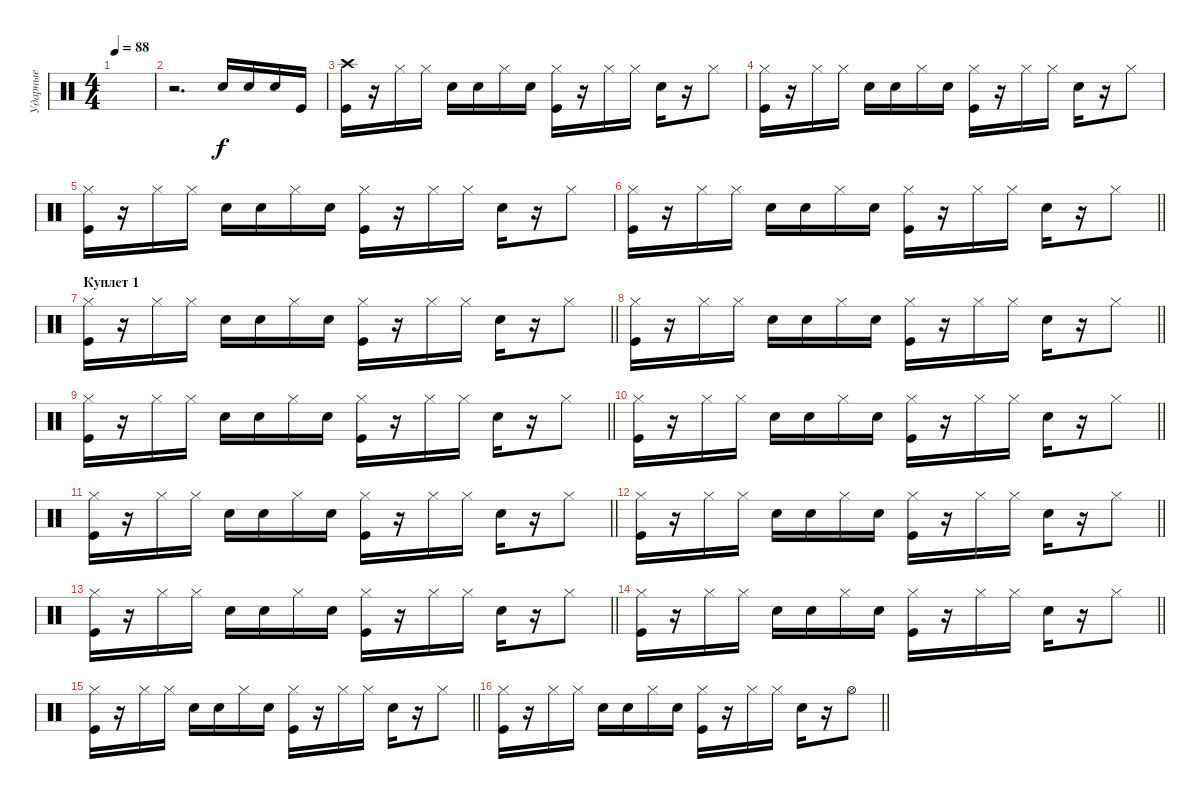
\track ("Ударные" "Ударные") {solo instrument percussion}
\staff {score}
\articulation defaults
\ts (4 4)
\tempo 88
\clef neutral
\ks aminor
|
r.2{d} "Electric Snare (hit)".16 "Electric Snare (hit)".16 "Electric Snare (hit)".16 "Kick (hit)".16 |
("Crash high (hit)" "Kick (hit)").16 r.16 "Hi-Hat (closed)".16 "Hi-Hat (closed)".16 "Snare (hit) 2".16 "Snare (hit) 2".16 "Hi-Hat (closed)".16 "Snare (hit) 2".16 ("Hi-Hat (closed)" "Kick (hit)").16 r.16 "Hi-Hat (closed)".16 "Hi-Hat (closed)".16 "Snare (hit) 2".16 r.16 "Hi-Hat (closed)".8 |
("Hi-Hat (closed)" "Kick (hit)").16 r.16 "Hi-Hat (closed)".16 "Hi-Hat (closed)".16 "Snare (hit) 2".16 "Snare (hit) 2".16 "Hi-Hat (closed)".16 "Snare (hit) 2".16 ("Hi-Hat (closed)" "Kick (hit)").16 r.16 "Hi-Hat (closed)".16 "Hi-Hat (closed)".16 "Snare (hit) 2".16 r.16 "Hi-Hat (closed)".8 |
("Hi-Hat (closed)" "Kick (hit)").16 r.16 "Hi-Hat (closed)".16 "Hi-Hat (closed)".16 "Snare (hit) 2".16 "Snare (hit) 2".16 "Hi-Hat (closed)".16 "Snare (hit) 2".16 ("Hi-Hat (closed)" "Kick (hit)").16 r.16 "Hi-Hat (closed)".16 "Hi-Hat (closed)".16 "Snare (hit) 2".16 r.16 "Hi-Hat (closed)".8 |
\barLineRight lightlight
("Hi-Hat (closed)" "Kick (hit)").16 r.16 "Hi-Hat (closed)".16 "Hi-Hat (closed)".16 "Snare (hit) 2".16 "Snare (hit) 2".16 "Hi-Hat (closed)".16 "Snare (hit) 2".16 ("Hi-Hat (closed)" "Kick (hit)").16 r.16 "Hi-Hat (closed)".16 "Hi-Hat (closed)".16 "Snare (hit) 2".16 r.16 "Hi-Hat (closed)".8 |
\section ("" "Куплет 1")
\barLineRight lightlight
("Hi-Hat (closed)" "Kick (hit)").16 r.16 "Hi-Hat (closed)".16 "Hi-Hat (closed)".16 "Snare (hit) 2".16 "Snare (hit) 2".16 "Hi-Hat (closed)".16 "Snare (hit) 2".16 ("Hi-Hat (closed)" "Kick (hit)").16 r.16 "Hi-Hat (closed)".16 "Hi-Hat (closed)".16 "Snare (hit) 2".16 r.16 "Hi-Hat (closed)".8 |
\barLineRight lightlight
("Hi-Hat (closed)" "Kick (hit)").16 r.16 "Hi-Hat (closed)".16 "Hi-Hat (closed)".16 "Snare (hit) 2".16 "Snare (hit) 2".16 "Hi-Hat (closed)".16 "Snare (hit) 2".16 ("Hi-Hat (closed)" "Kick (hit)").16 r.16 "Hi-Hat (closed)".16 "Hi-Hat (closed)".16 "Snare (hit) 2".16 r.16 "Hi-Hat (closed)".8 |
\barLineRight lightlight
("Hi-Hat (closed)" "Kick (hit)").16 r.16 "Hi-Hat (closed)".16 "Hi-Hat (closed)".16 "Snare (hit) 2".16 "Snare (hit) 2".16 "Hi-Hat (closed)".16 "Snare (hit) 2".16 ("Hi-Hat (closed)" "Kick (hit)").16 r.16 "Hi-Hat (closed)".16 "Hi-Hat (closed)".16 "Snare (hit) 2".16 r.16 "Hi-Hat (closed)".8 |
\barLineRight lightlight
("Hi-Hat (closed)" "Kick (hit)").16 r.16 "Hi-Hat (closed)".16 "Hi-Hat (closed)".16 "Snare (hit) 2".16 "Snare (hit) 2".16 "Hi-Hat (closed)".16 "Snare (hit) 2".16 ("Hi-Hat (closed)" "Kick (hit)").16 r.16 "Hi-Hat (closed)".16 "Hi-Hat (closed)".16 "Snare (hit) 2".16 r.16 "Hi-Hat (closed)".8 |
\barLineRight lightlight
("Hi-Hat (closed)" "Kick (hit)").16 r.16 "Hi-Hat (closed)".16 "Hi-Hat (closed)".16 "Snare (hit) 2".16 "Snare (hit) 2".16 "Hi-Hat (closed)".16 "Snare (hit) 2".16 ("Hi-Hat (closed)" "Kick (hit)").16 r.16 "Hi-Hat (closed)".16 "Hi-Hat (closed)".16 "Snare (hit) 2".16 r.16 "Hi-Hat (closed)".8 |
\barLineRight lightlight
("Hi-Hat (closed)" "Kick (hit)").16 r.16 "Hi-Hat (closed)".16 "Hi-Hat (closed)".16 "Snare (hit) 2".16 "Snare (hit) 2".16 "Hi-Hat (closed)".16 "Snare (hit) 2".16 ("Hi-Hat (closed)" "Kick (hit)").16 r.16 "Hi-Hat (closed)".16 "Hi-Hat (closed)".16 "Snare (hit) 2".16 r.16 "Hi-Hat (closed)".8 |
\barLineRight lightlight
("Hi-Hat (closed)" "Kick (hit)").16 r.16 "Hi-Hat (closed)".16 "Hi-Hat (closed)".16 "Snare (hit) 2".16 "Snare (hit) 2".16 "Hi-Hat (closed)".16 "Snare (hit) 2".16 ("Hi-Hat (closed)" "Kick (hit)").16 r.16 "Hi-Hat (closed)".16 "Hi-Hat (closed)".16 "Snare (hit) 2".16 r.16 "Hi-Hat (closed)".8 |
\barLineRight lightlight
("Hi-Hat (closed)" "Kick (hit)").16 r.16 "Hi-Hat (closed)".16 "Hi-Hat (closed)".16 "Snare (hit) 2".16 "Snare (hit) 2".16 "Hi-Hat (closed)".16 "Snare (hit) 2".16 ("Hi-Hat (closed)" "Kick (hit)").16 r.16 "Hi-Hat (closed)".16 "Hi-Hat (closed)".16 "Snare (hit) 2".16 r.16 "Hi-Hat (closed)".8 |
\barLineRight lightlight
("Hi-Hat (closed)" "Kick (hit)").16 r.16 "Hi-Hat (closed)".16 "Hi-Hat (closed)".16 "Snare (hit) 2".16 "Snare (hit) 2".16 "Hi-Hat (closed)".16 "Snare (hit) 2".16 ("Hi-Hat (closed)" "Kick (hit)").16 r.16 "Hi-Hat (closed)".16 "Hi-Hat (closed)".16 "Snare (hit) 2".16 r.16 "Hi-Hat (closed)".8 |
\barLineRight lightlight
("Hi-Hat (closed)" "Kick (hit)").16 r.16 "Hi-Hat (closed)".16 "Hi-Hat (closed)".16 "Snare (hit) 2".16 "Snare (hit) 2".16 "Hi-Hat (closed)".16 "Snare (hit) 2".16 ("Hi-Hat (closed)" "Kick (hit)").16 r.16 "Hi-Hat (closed)".16 "Hi-Hat (closed)".16 "Snare (hit) 2".16 r.16 "Hi-Hat (open)".8
